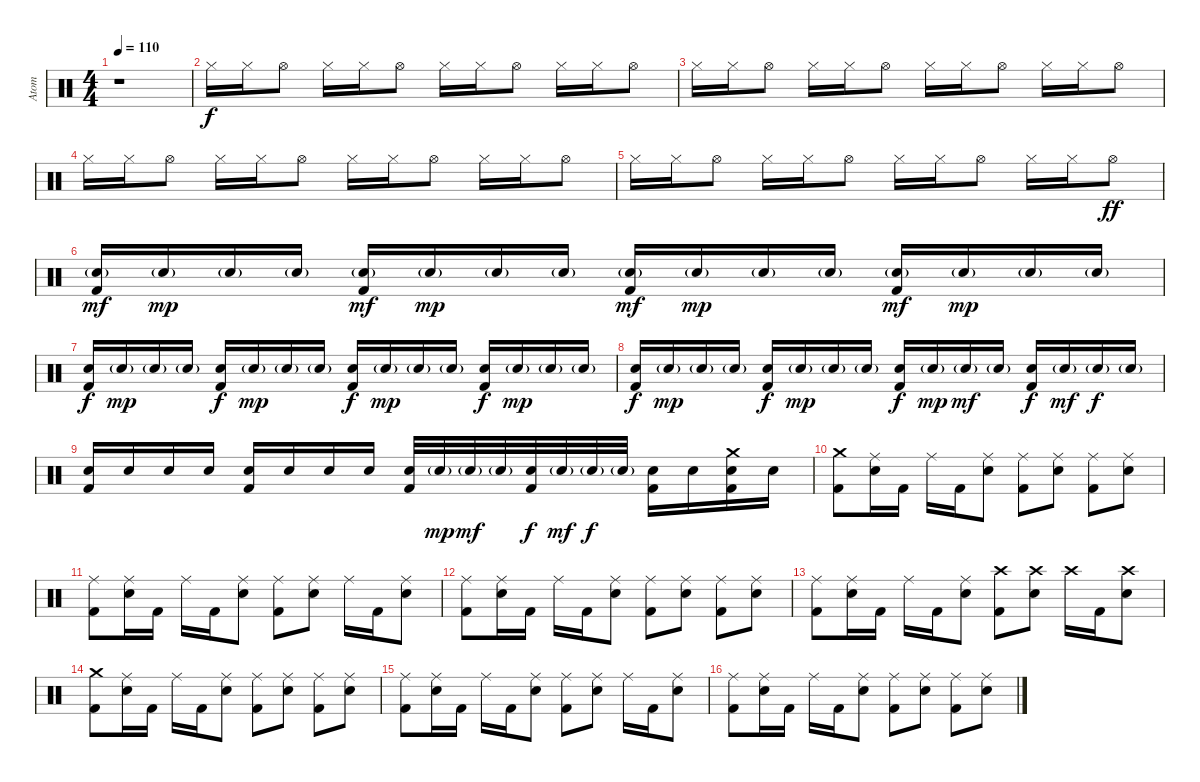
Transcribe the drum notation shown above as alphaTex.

\track ("Atom" "Atom") {instrument percussion}
\staff {score}
\articulation defaults
\ts (4 4)
\tempo 110
\clef neutral
\ks c
r.1{dy f} |
"Hi-Hat (closed)".16 "Hi-Hat (closed)".16 "Hi-Hat (open)".8 "Hi-Hat (closed)".16 "Hi-Hat (closed)".16 "Hi-Hat (open)".8 "Hi-Hat (closed)".16 "Hi-Hat (closed)".16 "Hi-Hat (open)".8 "Hi-Hat (closed)".16 "Hi-Hat (closed)".16 "Hi-Hat (open)".8 |
"Hi-Hat (closed)".16 "Hi-Hat (closed)".16 "Hi-Hat (open)".8 "Hi-Hat (closed)".16 "Hi-Hat (closed)".16 "Hi-Hat (open)".8 "Hi-Hat (closed)".16 "Hi-Hat (closed)".16 "Hi-Hat (open)".8 "Hi-Hat (closed)".16 "Hi-Hat (closed)".16 "Hi-Hat (open)".8 |
"Hi-Hat (closed)".16 "Hi-Hat (closed)".16 "Hi-Hat (open)".8 "Hi-Hat (closed)".16 "Hi-Hat (closed)".16 "Hi-Hat (open)".8 "Hi-Hat (closed)".16 "Hi-Hat (closed)".16 "Hi-Hat (open)".8 "Hi-Hat (closed)".16 "Hi-Hat (closed)".16 "Hi-Hat (open)".8 |
"Hi-Hat (closed)".16 "Hi-Hat (closed)".16 "Hi-Hat (open)".8 "Hi-Hat (closed)".16 "Hi-Hat (closed)".16 "Hi-Hat (open)".8 "Hi-Hat (closed)".16 "Hi-Hat (closed)".16 "Hi-Hat (open)".8 "Hi-Hat (closed)".16 "Hi-Hat (closed)".16 "Hi-Hat (open)".8{dy ff} |
("Electric Snare (hit)"{g} "Kick (hit) 2").16{dy mf} "Electric Snare (hit)"{g}.16{dy mp} "Electric Snare (hit)"{g}.16 "Electric Snare (hit)"{g}.16 ("Electric Snare (hit)"{g} "Kick (hit) 2").16{dy mf} "Electric Snare (hit)"{g}.16{dy mp} "Electric Snare (hit)"{g}.16 "Electric Snare (hit)"{g}.16 ("Electric Snare (hit)"{g} "Kick (hit) 2").16{dy mf} "Electric Snare (hit)"{g}.16{dy mp} "Electric Snare (hit)"{g}.16 "Electric Snare (hit)"{g}.16 ("Electric Snare (hit)"{g} "Kick (hit) 2").16{dy mf} "Electric Snare (hit)"{g}.16{dy mp} "Electric Snare (hit)"{g}.16 "Electric Snare (hit)"{g}.16 |
("Electric Snare (hit)" "Kick (hit) 2").16{dy f} "Electric Snare (hit)"{g}.16{dy mp} "Electric Snare (hit)"{g}.16 "Electric Snare (hit)"{g}.16 ("Electric Snare (hit)" "Kick (hit) 2").16{dy f} "Electric Snare (hit)"{g}.16{dy mp} "Electric Snare (hit)"{g}.16 "Electric Snare (hit)"{g}.16 ("Electric Snare (hit)" "Kick (hit) 2").16{dy f} "Electric Snare (hit)"{g}.16{dy mp} "Electric Snare (hit)"{g}.16 "Electric Snare (hit)"{g}.16 ("Electric Snare (hit)" "Kick (hit) 2").16{dy f} "Electric Snare (hit)"{g}.16{dy mp} "Electric Snare (hit)"{g}.16 "Electric Snare (hit)"{g}.16 |
("Electric Snare (hit)" "Kick (hit) 2").16{dy f} "Electric Snare (hit)"{g}.16{dy mp} "Electric Snare (hit)"{g}.16 "Electric Snare (hit)"{g}.16 ("Electric Snare (hit)" "Kick (hit) 2").16{dy f} "Electric Snare (hit)"{g}.16{dy mp} "Electric Snare (hit)"{g}.16 "Electric Snare (hit)"{g}.16 ("Electric Snare (hit)" "Kick (hit) 2").16{dy f} "Electric Snare (hit)"{g}.16{dy mp} "Electric Snare (hit)"{g}.16{dy mf} "Electric Snare (hit)"{g}.16 ("Electric Snare (hit)" "Kick (hit) 2").16{dy f} "Electric Snare (hit)"{g}.16{dy mf} "Electric Snare (hit)"{g}.16{dy f} "Electric Snare (hit)"{g}.16 |
("Electric Snare (hit)" "Kick (hit) 2").16 "Electric Snare (hit)".16 "Electric Snare (hit)".16 "Electric Snare (hit)".16 ("Electric Snare (hit)" "Kick (hit) 2").16 "Electric Snare (hit)".16 "Electric Snare (hit)".16 "Electric Snare (hit)".16 ("Electric Snare (hit)" "Kick (hit) 2").32 "Electric Snare (hit)"{g}.32{dy mp} "Electric Snare (hit)"{g}.32{dy mf} "Electric Snare (hit)"{g}.32 ("Electric Snare (hit)" "Kick (hit) 2").32{dy f} "Electric Snare (hit)"{g}.32{dy mf} "Electric Snare (hit)"{g}.32{dy f} "Electric Snare (hit)"{g}.32 ("Electric Snare (hit)" "Kick (hit) 2").16 "Electric Snare (hit)".16 ("Crash medium (hit)" "Electric Snare (hit)" "Kick (hit) 2").16 "Electric Snare (hit)".16 |
("Crash medium (hit)" "Kick (hit) 2").8 ("Ride (middle)" "Electric Snare (hit)").16 "Kick (hit) 2".16 "Ride (middle)".16 "Kick (hit) 2".16 ("Ride (middle)" "Electric Snare (hit)").8 ("Ride (middle)" "Kick (hit) 2").8 ("Ride (middle)" "Electric Snare (hit)").8 ("Ride (middle)" "Kick (hit) 2").8 ("Ride (middle)" "Electric Snare (hit)").8 |
("Ride (middle)" "Kick (hit) 2").8 ("Ride (middle)" "Electric Snare (hit)").16 "Kick (hit) 2".16 "Ride (middle)".16 "Kick (hit) 2".16 ("Ride (middle)" "Electric Snare (hit)").8 ("Ride (middle)" "Kick (hit) 2").8 ("Ride (middle)" "Electric Snare (hit)").8 "Ride (middle)".16 "Kick (hit) 2".16 ("Ride (middle)" "Electric Snare (hit)").8 |
("Ride (middle)" "Kick (hit) 2").8 ("Ride (middle)" "Electric Snare (hit)").16 "Kick (hit) 2".16 "Ride (middle)".16 "Kick (hit) 2".16 ("Ride (middle)" "Electric Snare (hit)").8 ("Ride (middle)" "Kick (hit) 2").8 ("Ride (middle)" "Electric Snare (hit)").8 ("Ride (middle)" "Kick (hit) 2").8 ("Ride (middle)" "Electric Snare (hit)").8 |
("Ride (middle)" "Kick (hit) 2").8 ("Ride (middle)" "Electric Snare (hit)").16 "Kick (hit) 2".16 "Ride (middle)".16 "Kick (hit) 2".16 ("Ride (middle)" "Electric Snare (hit)").8 ("Crash high (hit)" "Kick (hit) 2").8 ("Crash high (hit)" "Electric Snare (hit)").8 "Crash high (hit)".16 "Kick (hit) 2".16 ("Crash high (hit)" "Electric Snare (hit)").8 |
("Crash medium (hit)" "Kick (hit) 2").8 ("Ride (middle)" "Electric Snare (hit)").16 "Kick (hit) 2".16 "Ride (middle)".16 "Kick (hit) 2".16 ("Ride (middle)" "Electric Snare (hit)").8 ("Ride (middle)" "Kick (hit) 2").8 ("Ride (middle)" "Electric Snare (hit)").8 ("Ride (middle)" "Kick (hit) 2").8 ("Ride (middle)" "Electric Snare (hit)").8 |
("Ride (middle)" "Kick (hit) 2").8 ("Ride (middle)" "Electric Snare (hit)").16 "Kick (hit) 2".16 "Ride (middle)".16 "Kick (hit) 2".16 ("Ride (middle)" "Electric Snare (hit)").8 ("Ride (middle)" "Kick (hit) 2").8 ("Ride (middle)" "Electric Snare (hit)").8 "Ride (middle)".16 "Kick (hit) 2".16 ("Ride (middle)" "Electric Snare (hit)").8 |
("Ride (middle)" "Kick (hit) 2").8 ("Ride (middle)" "Electric Snare (hit)").16 "Kick (hit) 2".16 "Ride (middle)".16 "Kick (hit) 2".16 ("Ride (middle)" "Electric Snare (hit)").8 ("Ride (middle)" "Kick (hit) 2").8 ("Ride (middle)" "Electric Snare (hit)").8 ("Ride (middle)" "Kick (hit) 2").8 ("Ride (middle)" "Electric Snare (hit)").8
